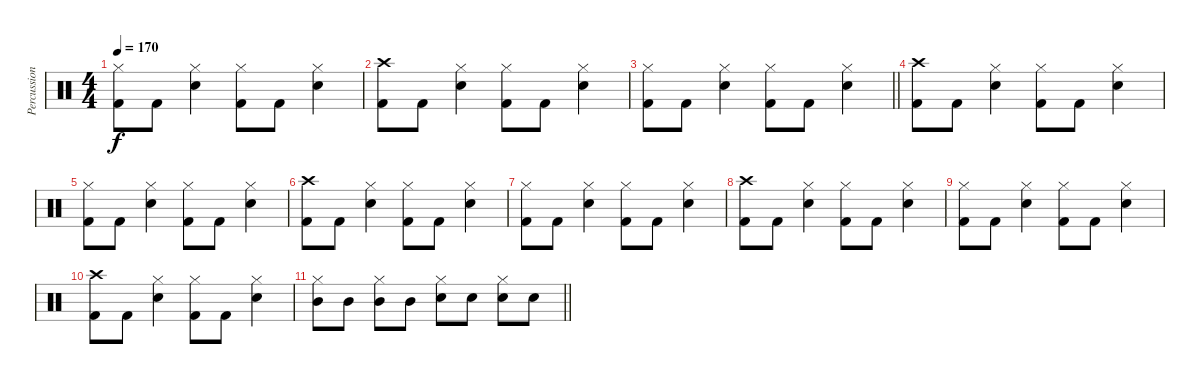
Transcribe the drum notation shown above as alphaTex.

\track ("Percussion" "Percussion") {instrument percussion}
\staff {score}
\articulation defaults
\ts (4 4)
\tempo 170
\clef neutral
\ks c
("Hi-Hat (closed)" "Kick (hit) 2").8{dy f} "Kick (hit) 2".8 ("Hi-Hat (closed)" "Electric Snare (hit)").4 ("Hi-Hat (closed)" "Kick (hit) 2").8 "Kick (hit) 2".8 ("Hi-Hat (closed)" "Electric Snare (hit)").4 |
("Crash high (hit)" "Kick (hit) 2").8 "Kick (hit) 2".8 ("Hi-Hat (closed)" "Electric Snare (hit)").4 ("Hi-Hat (closed)" "Kick (hit) 2").8 "Kick (hit) 2".8 ("Hi-Hat (closed)" "Electric Snare (hit)").4 |
\barLineRight lightlight
("Hi-Hat (closed)" "Kick (hit) 2").8 "Kick (hit) 2".8 ("Hi-Hat (closed)" "Electric Snare (hit)").4 ("Hi-Hat (closed)" "Kick (hit) 2").8 "Kick (hit) 2".8 ("Hi-Hat (closed)" "Electric Snare (hit)").4 |
("Crash high (hit)" "Kick (hit) 2").8 "Kick (hit) 2".8 ("Hi-Hat (closed)" "Electric Snare (hit)").4 ("Hi-Hat (closed)" "Kick (hit) 2").8 "Kick (hit) 2".8 ("Hi-Hat (closed)" "Electric Snare (hit)").4 |
("Hi-Hat (closed)" "Kick (hit) 2").8 "Kick (hit) 2".8 ("Hi-Hat (closed)" "Electric Snare (hit)").4 ("Hi-Hat (closed)" "Kick (hit) 2").8 "Kick (hit) 2".8 ("Hi-Hat (closed)" "Electric Snare (hit)").4 |
("Crash high (hit)" "Kick (hit) 2").8 "Kick (hit) 2".8 ("Hi-Hat (closed)" "Electric Snare (hit)").4 ("Hi-Hat (closed)" "Kick (hit) 2").8 "Kick (hit) 2".8 ("Hi-Hat (closed)" "Electric Snare (hit)").4 |
("Hi-Hat (closed)" "Kick (hit) 2").8 "Kick (hit) 2".8 ("Hi-Hat (closed)" "Electric Snare (hit)").4 ("Hi-Hat (closed)" "Kick (hit) 2").8 "Kick (hit) 2".8 ("Hi-Hat (closed)" "Electric Snare (hit)").4 |
("Crash high (hit)" "Kick (hit) 2").8 "Kick (hit) 2".8 ("Hi-Hat (closed)" "Electric Snare (hit)").4 ("Hi-Hat (closed)" "Kick (hit) 2").8 "Kick (hit) 2".8 ("Hi-Hat (closed)" "Electric Snare (hit)").4 |
("Hi-Hat (closed)" "Kick (hit) 2").8 "Kick (hit) 2".8 ("Hi-Hat (closed)" "Electric Snare (hit)").4 ("Hi-Hat (closed)" "Kick (hit) 2").8 "Kick (hit) 2".8 ("Hi-Hat (closed)" "Electric Snare (hit)").4 |
("Crash high (hit)" "Kick (hit) 2").8 "Kick (hit) 2".8 ("Hi-Hat (closed)" "Electric Snare (hit)").4 ("Hi-Hat (closed)" "Kick (hit) 2").8 "Kick (hit) 2".8 ("Hi-Hat (closed)" "Electric Snare (hit)").4 |
\barLineRight lightlight
("Hi-Hat (closed)" "Mid Tom (hit)").8 "Mid Tom (hit)".8 ("Hi-Hat (closed)" "Mid Tom (hit)").8 "Mid Tom (hit)".8 ("Hi-Hat (closed)" "Electric Snare (hit)").8 "Electric Snare (hit)".8 ("Hi-Hat (closed)" "Electric Snare (hit)").8 "Electric Snare (hit)".8
